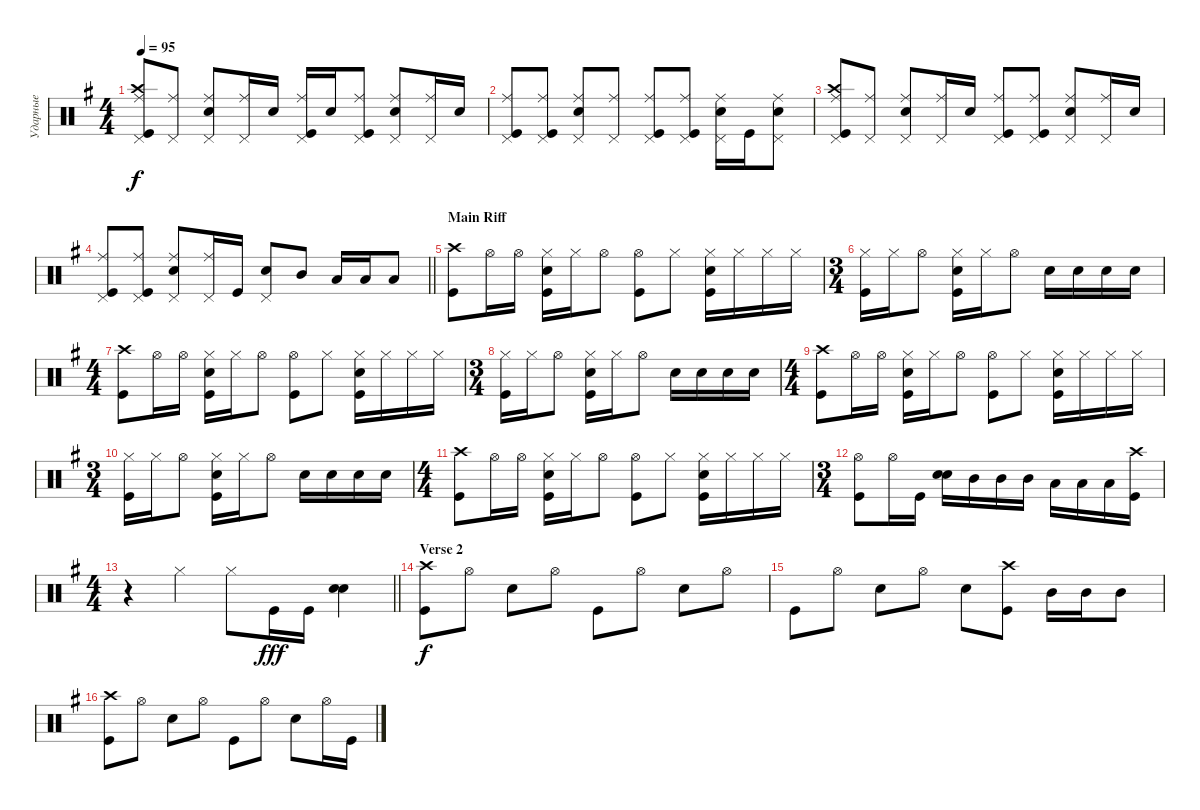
\track ("Ударные" "Ударные") {instrument percussion}
\staff {score}
\articulation defaults
\ts (4 4)
\tempo 95
\clef neutral
\ks eminor
("Kick (hit)" "Crash high (hit)" "Ride (middle)" "Pedal Hi-Hat (hit)").8{dy f} ("Pedal Hi-Hat (hit)" "Ride (middle)").8 ("Snare (hit) 2" "Pedal Hi-Hat (hit)" "Ride (middle)").8 ("Pedal Hi-Hat (hit)" "Ride (middle)").16 "Snare (hit) 2".16 ("Kick (hit)" "Pedal Hi-Hat (hit)" "Ride (middle)").16 "Snare (hit) 2".16 ("Kick (hit)" "Pedal Hi-Hat (hit)" "Ride (middle)").8 ("Snare (hit) 2" "Pedal Hi-Hat (hit)" "Ride (middle)").8 ("Pedal Hi-Hat (hit)" "Ride (middle)").16 "Snare (hit) 2".16 |
("Kick (hit)" "Ride (middle)" "Pedal Hi-Hat (hit)").8 ("Kick (hit)" "Ride (middle)" "Pedal Hi-Hat (hit)").8 ("Snare (hit) 2" "Pedal Hi-Hat (hit)" "Ride (middle)").8 ("Pedal Hi-Hat (hit)" "Ride (middle)").8 ("Kick (hit)" "Pedal Hi-Hat (hit)" "Ride (middle)").8 ("Kick (hit)" "Pedal Hi-Hat (hit)" "Ride (middle)").8 ("Snare (hit) 2" "Pedal Hi-Hat (hit)" "Ride (middle)").16 "Kick (hit)".16 ("Snare (hit) 2" "Ride (middle)" "Pedal Hi-Hat (hit)").8 |
("Kick (hit)" "Crash high (hit)" "Ride (middle)" "Pedal Hi-Hat (hit)").8 ("Pedal Hi-Hat (hit)" "Ride (middle)").8 ("Snare (hit) 2" "Pedal Hi-Hat (hit)" "Ride (middle)").8 ("Pedal Hi-Hat (hit)" "Ride (middle)").16 "Snare (hit) 2".16 ("Kick (hit)" "Pedal Hi-Hat (hit)" "Ride (middle)").8 ("Kick (hit)" "Pedal Hi-Hat (hit)" "Ride (middle)").8 ("Snare (hit) 2" "Pedal Hi-Hat (hit)" "Ride (middle)").8 ("Pedal Hi-Hat (hit)" "Ride (middle)").16 "Snare (hit) 2".16 |
\barLineRight lightlight
("Pedal Hi-Hat (hit)" "Kick (hit)" "Ride (middle)").8 ("Kick (hit)" "Pedal Hi-Hat (hit)" "Ride (middle)").8 ("Snare (hit) 2" "Pedal Hi-Hat (hit)" "Ride (middle)").8 ("Pedal Hi-Hat (hit)" "Ride (middle)").16 "Kick (hit)".16 ("Snare (hit) 2" "Pedal Hi-Hat (hit)").8 "Mid Tom (hit)".8 "Low Tom (hit)".16 "Low Tom (hit)".16 "Low Tom (hit)".8 |
\section ("" "Main Riff")
("Kick (hit)" "Crash high (hit)").8 "Hi-Hat (open)".16 "Hi-Hat (open)".16 ("Snare (hit) 2" "Hi-Hat (closed)" "Kick (hit)").16 "Hi-Hat (closed)".16 "Hi-Hat (open)".8 ("Hi-Hat (open)" "Kick (hit)").8 "Hi-Hat (closed)".8 ("Hi-Hat (closed)" "Snare (hit) 2" "Kick (hit)").16 "Hi-Hat (closed)".16 "Hi-Hat (closed)".16 "Hi-Hat (closed)".16 |
\ts (3 4)
("Hi-Hat (closed)" "Kick (hit)").16 "Hi-Hat (closed)".16 "Hi-Hat (open)".8 ("Hi-Hat (closed)" "Snare (hit) 2" "Kick (hit)").16 "Hi-Hat (closed)".16 "Hi-Hat (open)".8 "Snare (hit) 2".16 "Snare (hit) 2".16 "Snare (hit) 2".16 "Snare (hit) 2".16 |
\ts (4 4)
("Kick (hit)" "Crash high (hit)").8 "Hi-Hat (open)".16 "Hi-Hat (open)".16 ("Snare (hit) 2" "Hi-Hat (closed)" "Kick (hit)").16 "Hi-Hat (closed)".16 "Hi-Hat (open)".8 ("Hi-Hat (open)" "Kick (hit)").8 "Hi-Hat (closed)".8 ("Hi-Hat (closed)" "Snare (hit) 2" "Kick (hit)").16 "Hi-Hat (closed)".16 "Hi-Hat (closed)".16 "Hi-Hat (closed)".16 |
\ts (3 4)
("Hi-Hat (closed)" "Kick (hit)").16 "Hi-Hat (closed)".16 "Hi-Hat (open)".8 ("Hi-Hat (closed)" "Snare (hit) 2" "Kick (hit)").16 "Hi-Hat (closed)".16 "Hi-Hat (open)".8 "Snare (hit) 2".16 "Snare (hit) 2".16 "Snare (hit) 2".16 "Snare (hit) 2".16 |
\ts (4 4)
("Kick (hit)" "Crash high (hit)").8 "Hi-Hat (open)".16 "Hi-Hat (open)".16 ("Snare (hit) 2" "Hi-Hat (closed)" "Kick (hit)").16 "Hi-Hat (closed)".16 "Hi-Hat (open)".8 ("Hi-Hat (open)" "Kick (hit)").8 "Hi-Hat (closed)".8 ("Hi-Hat (closed)" "Snare (hit) 2" "Kick (hit)").16 "Hi-Hat (closed)".16 "Hi-Hat (closed)".16 "Hi-Hat (closed)".16 |
\ts (3 4)
("Hi-Hat (closed)" "Kick (hit)").16 "Hi-Hat (closed)".16 "Hi-Hat (open)".8 ("Hi-Hat (closed)" "Snare (hit) 2" "Kick (hit)").16 "Hi-Hat (closed)".16 "Hi-Hat (open)".8 "Snare (hit) 2".16 "Snare (hit) 2".16 "Snare (hit) 2".16 "Snare (hit) 2".16 |
\ts (4 4)
("Kick (hit)" "Crash high (hit)").8 "Hi-Hat (open)".16 "Hi-Hat (open)".16 ("Snare (hit) 2" "Hi-Hat (closed)" "Kick (hit)").16 "Hi-Hat (closed)".16 "Hi-Hat (open)".8 ("Hi-Hat (open)" "Kick (hit)").8 "Hi-Hat (closed)".8 ("Hi-Hat (closed)" "Snare (hit) 2" "Kick (hit)").16 "Hi-Hat (closed)".16 "Hi-Hat (closed)".16 "Hi-Hat (closed)".16 |
\ts (3 4)
("Hi-Hat (open)" "Kick (hit)").8 "Hi-Hat (open)".16 "Kick (hit)".16 ("Snare (hit) 2" "Snare (hit) 2").16{bd 120} "Mid Tom (hit)".16 "Mid Tom (hit)".16 "Mid Tom (hit)".16 "Low Tom (hit)".16 "Low Tom (hit)".16 "Low Tom (hit)".16 ("Kick (hit)" "Crash high (hit)").16 |
\ts (4 4)
\barLineRight lightlight
r.4 "Hi-Hat (closed)".4 "Hi-Hat (closed)".8 "Kick (hit)".16{dy fff} "Kick (hit)".16 ("Snare (hit) 2" "Snare (hit) 2").4{bd 240} |
\section ("" "Verse 2")
("Kick (hit)" "Crash high (hit)").8{dy f} "Hi-Hat (open)".8 "Snare (hit) 2".8 "Hi-Hat (open)".8 "Kick (hit)".8 "Hi-Hat (open)".8 "Snare (hit) 2".8 "Hi-Hat (open)".8 |
"Kick (hit)".8 "Hi-Hat (open)".8 "Snare (hit) 2".8 "Hi-Hat (open)".8 "Snare (hit) 2".8 ("Kick (hit)" "Crash high (hit)").8 "Mid Tom (hit)".16 "Mid Tom (hit)".16 "Mid Tom (hit)".8 |
("Kick (hit)" "Crash high (hit)").8 "Hi-Hat (open)".8 "Snare (hit) 2".8 "Hi-Hat (open)".8 "Kick (hit)".8 "Hi-Hat (open)".8 "Snare (hit) 2".8 "Hi-Hat (open)".16 "Kick (hit)".16
